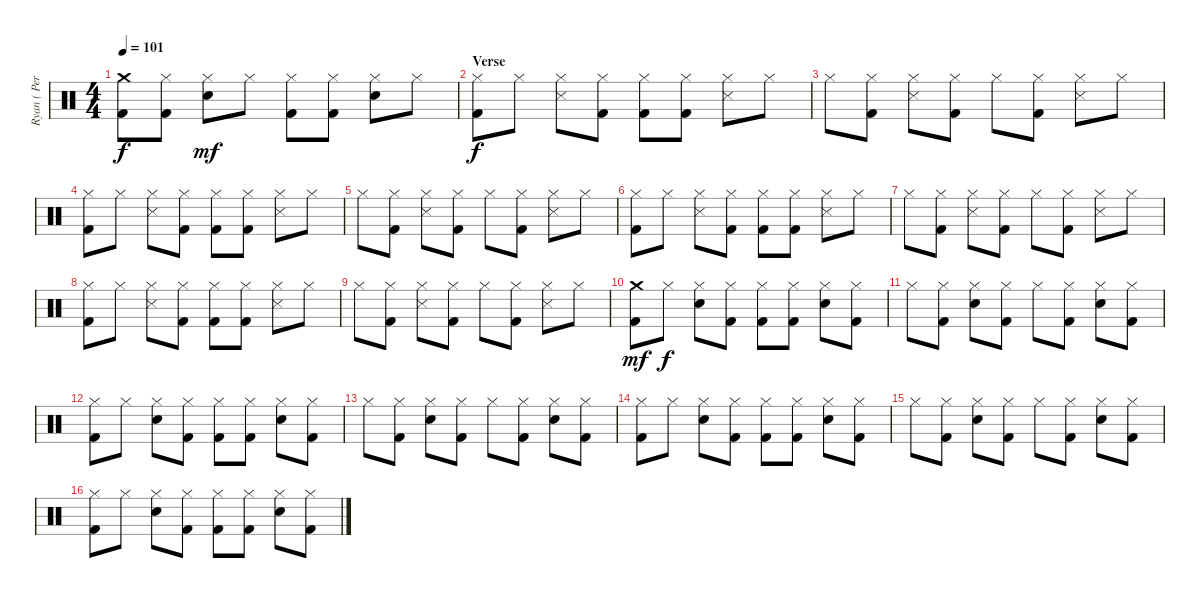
\track ("Ryan ( Percussion )" "Ryan ( Per") {instrument percussion}
\staff {score}
\articulation defaults
\ts (4 4)
\tempo 101
\clef neutral
\ks c
("Crash medium (hit)" "Kick (hit) 2").8{dy f} ("Hi-Hat (closed)" "Kick (hit) 2").8 ("Hi-Hat (closed)" "Snare (hit) 2").8{dy mf} "Hi-Hat (closed)".8 ("Hi-Hat (closed)" "Kick (hit) 2").8 ("Hi-Hat (closed)" "Kick (hit) 2").8 ("Hi-Hat (closed)" "Snare (hit) 2").8 "Hi-Hat (closed)".8 |
\section ("" "Verse")
("Hi-Hat (closed)" "Kick (hit) 2").8{dy f} "Hi-Hat (closed)".8 ("Hi-Hat (closed)" "Snare (side stick) 3").8 ("Hi-Hat (closed)" "Kick (hit) 2").8 ("Hi-Hat (closed)" "Kick (hit) 2").8 ("Hi-Hat (closed)" "Kick (hit) 2").8 ("Hi-Hat (closed)" "Snare (side stick) 3").8 "Hi-Hat (closed)".8 |
"Hi-Hat (closed)".8 ("Hi-Hat (closed)" "Kick (hit) 2").8 ("Hi-Hat (closed)" "Snare (side stick) 3").8 ("Hi-Hat (closed)" "Kick (hit) 2").8 "Hi-Hat (closed)".8 ("Hi-Hat (closed)" "Kick (hit) 2").8 ("Hi-Hat (closed)" "Snare (side stick) 3").8 "Hi-Hat (closed)".8 |
("Hi-Hat (closed)" "Kick (hit) 2").8 "Hi-Hat (closed)".8 ("Hi-Hat (closed)" "Snare (side stick) 3").8 ("Hi-Hat (closed)" "Kick (hit) 2").8 ("Hi-Hat (closed)" "Kick (hit) 2").8 ("Hi-Hat (closed)" "Kick (hit) 2").8 ("Hi-Hat (closed)" "Snare (side stick) 3").8 "Hi-Hat (closed)".8 |
"Hi-Hat (closed)".8 ("Hi-Hat (closed)" "Kick (hit) 2").8 ("Hi-Hat (closed)" "Snare (side stick) 3").8 ("Hi-Hat (closed)" "Kick (hit) 2").8 "Hi-Hat (closed)".8 ("Hi-Hat (closed)" "Kick (hit) 2").8 ("Hi-Hat (closed)" "Snare (side stick) 3").8 "Hi-Hat (closed)".8 |
("Hi-Hat (closed)" "Kick (hit) 2").8 "Hi-Hat (closed)".8 ("Hi-Hat (closed)" "Snare (side stick) 3").8 ("Hi-Hat (closed)" "Kick (hit) 2").8 ("Hi-Hat (closed)" "Kick (hit) 2").8 ("Hi-Hat (closed)" "Kick (hit) 2").8 ("Hi-Hat (closed)" "Snare (side stick) 3").8 "Hi-Hat (closed)".8 |
"Hi-Hat (closed)".8 ("Hi-Hat (closed)" "Kick (hit) 2").8 ("Hi-Hat (closed)" "Snare (side stick) 3").8 ("Hi-Hat (closed)" "Kick (hit) 2").8 "Hi-Hat (closed)".8 ("Hi-Hat (closed)" "Kick (hit) 2").8 ("Hi-Hat (closed)" "Snare (side stick) 3").8 "Hi-Hat (closed)".8 |
("Hi-Hat (closed)" "Kick (hit) 2").8 "Hi-Hat (closed)".8 ("Hi-Hat (closed)" "Snare (side stick) 3").8 ("Hi-Hat (closed)" "Kick (hit) 2").8 ("Hi-Hat (closed)" "Kick (hit) 2").8 ("Hi-Hat (closed)" "Kick (hit) 2").8 ("Hi-Hat (closed)" "Snare (side stick) 3").8 "Hi-Hat (closed)".8 |
"Hi-Hat (closed)".8 ("Hi-Hat (closed)" "Kick (hit) 2").8 ("Hi-Hat (closed)" "Snare (side stick) 3").8 ("Hi-Hat (closed)" "Kick (hit) 2").8 "Hi-Hat (closed)".8 ("Hi-Hat (closed)" "Kick (hit) 2").8 ("Hi-Hat (closed)" "Snare (side stick) 3").8 "Hi-Hat (closed)".8 |
("Crash medium (hit)" "Kick (hit) 2").8{dy mf} "Hi-Hat (closed)".8{dy f} ("Hi-Hat (closed)" "Electric Snare (hit)").8 ("Hi-Hat (closed)" "Kick (hit) 2").8 ("Hi-Hat (closed)" "Kick (hit) 2").8 ("Hi-Hat (closed)" "Kick (hit) 2").8 ("Hi-Hat (closed)" "Electric Snare (hit)").8 ("Hi-Hat (closed)" "Kick (hit) 2").8 |
"Hi-Hat (closed)".8 ("Hi-Hat (closed)" "Kick (hit) 2").8 ("Hi-Hat (closed)" "Electric Snare (hit)").8 ("Hi-Hat (closed)" "Kick (hit) 2").8 "Hi-Hat (closed)".8 ("Hi-Hat (closed)" "Kick (hit) 2").8 ("Hi-Hat (closed)" "Electric Snare (hit)").8 ("Hi-Hat (closed)" "Kick (hit) 2").8 |
("Hi-Hat (closed)" "Kick (hit) 2").8 "Hi-Hat (closed)".8 ("Hi-Hat (closed)" "Electric Snare (hit)").8 ("Hi-Hat (closed)" "Kick (hit) 2").8 ("Hi-Hat (closed)" "Kick (hit) 2").8 ("Hi-Hat (closed)" "Kick (hit) 2").8 ("Hi-Hat (closed)" "Electric Snare (hit)").8 ("Hi-Hat (closed)" "Kick (hit) 2").8 |
"Hi-Hat (closed)".8 ("Hi-Hat (closed)" "Kick (hit) 2").8 ("Hi-Hat (closed)" "Electric Snare (hit)").8 ("Hi-Hat (closed)" "Kick (hit) 2").8 "Hi-Hat (closed)".8 ("Hi-Hat (closed)" "Kick (hit) 2").8 ("Hi-Hat (closed)" "Electric Snare (hit)").8 ("Hi-Hat (closed)" "Kick (hit) 2").8 |
("Hi-Hat (closed)" "Kick (hit) 2").8 "Hi-Hat (closed)".8 ("Hi-Hat (closed)" "Electric Snare (hit)").8 ("Hi-Hat (closed)" "Kick (hit) 2").8 ("Hi-Hat (closed)" "Kick (hit) 2").8 ("Hi-Hat (closed)" "Kick (hit) 2").8 ("Hi-Hat (closed)" "Electric Snare (hit)").8 ("Hi-Hat (closed)" "Kick (hit) 2").8 |
"Hi-Hat (closed)".8 ("Hi-Hat (closed)" "Kick (hit) 2").8 ("Hi-Hat (closed)" "Electric Snare (hit)").8 ("Hi-Hat (closed)" "Kick (hit) 2").8 "Hi-Hat (closed)".8 ("Hi-Hat (closed)" "Kick (hit) 2").8 ("Hi-Hat (closed)" "Electric Snare (hit)").8 ("Hi-Hat (closed)" "Kick (hit) 2").8 |
("Hi-Hat (closed)" "Kick (hit) 2").8 "Hi-Hat (closed)".8 ("Hi-Hat (closed)" "Electric Snare (hit)").8 ("Hi-Hat (closed)" "Kick (hit) 2").8 ("Hi-Hat (closed)" "Kick (hit) 2").8 ("Hi-Hat (closed)" "Kick (hit) 2").8 ("Hi-Hat (closed)" "Electric Snare (hit)").8 ("Hi-Hat (closed)" "Kick (hit) 2").8
